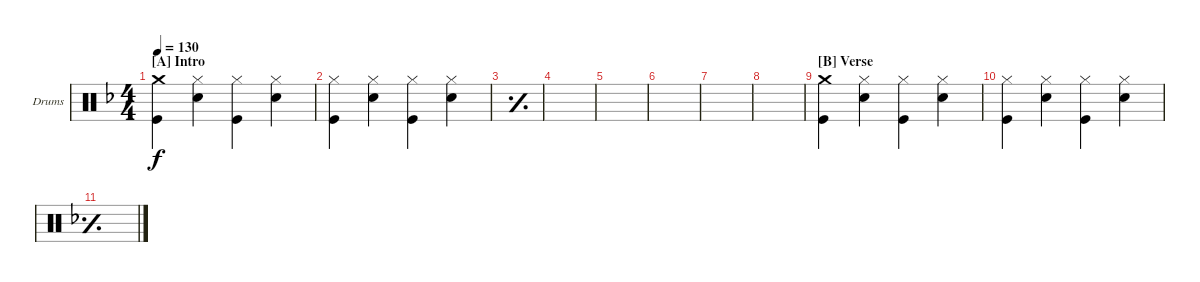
\defaultSystemsLayout 4
\bracketExtendMode groupsimilarinstruments
\firstSystemTrackNameOrientation horizontal
\otherSystemsTrackNameOrientation horizontal
\track ("Matt Helders" "Drums") {instrument percussion}
\staff {score}
\articulation defaults
\ts (4 4)
\section ("A" "Intro")
\tempo 130
\clef neutral
\ks f
("Kick (hit)" "Crash medium (hit)").4{dy f} ("Snare (hit) 2" "Hi-Hat (closed)").4 ("Kick (hit)" "Hi-Hat (closed)").4 ("Snare (hit) 2" "Hi-Hat (closed)").4 |
("Kick (hit)" "Hi-Hat (closed)").4 ("Snare (hit) 2" "Hi-Hat (closed)").4 ("Kick (hit)" "Hi-Hat (closed)").4 ("Snare (hit) 2" "Hi-Hat (closed)").4 |
\simile simple
|
|
|
|
|
|
\section ("B" "Verse")
\simile none
("Kick (hit)" "Crash medium (hit)").4 ("Snare (hit) 2" "Hi-Hat (closed)").4 ("Kick (hit)" "Hi-Hat (closed)").4 ("Snare (hit) 2" "Hi-Hat (closed)").4 |
("Kick (hit)" "Hi-Hat (closed)").4 ("Snare (hit) 2" "Hi-Hat (closed)").4 ("Kick (hit)" "Hi-Hat (closed)").4 ("Snare (hit) 2" "Hi-Hat (closed)").4 |
\simile simple
